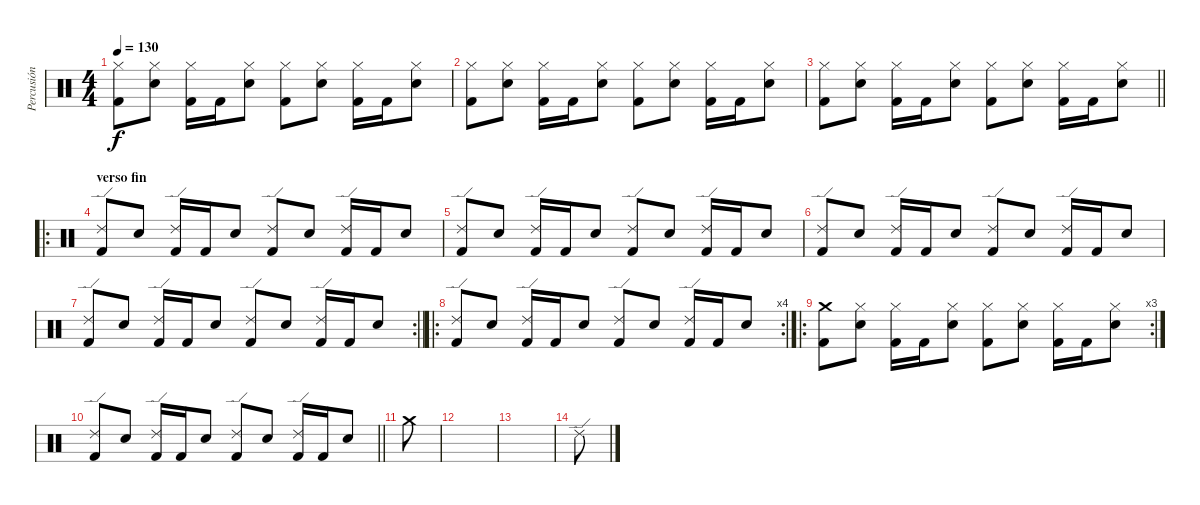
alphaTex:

\track ("Percusión" "Percusión") {instrument percussion}
\staff {score}
\articulation defaults
\ts (4 4)
\tempo 130
\clef neutral
\ks c
("Hi-Hat (closed)" "Kick (hit) 2").8{dy f} ("Hi-Hat (closed)" "Electric Snare (hit)").8 ("Hi-Hat (closed)" "Kick (hit) 2").16 "Kick (hit) 2".16 ("Hi-Hat (closed)" "Electric Snare (hit)").8 ("Hi-Hat (closed)" "Kick (hit) 2").8 ("Hi-Hat (closed)" "Electric Snare (hit)").8 ("Hi-Hat (closed)" "Kick (hit) 2").16 "Kick (hit) 2".16 ("Hi-Hat (closed)" "Electric Snare (hit)").8 |
("Hi-Hat (closed)" "Kick (hit) 2").8 ("Hi-Hat (closed)" "Electric Snare (hit)").8 ("Hi-Hat (closed)" "Kick (hit) 2").16 "Kick (hit) 2".16 ("Hi-Hat (closed)" "Electric Snare (hit)").8 ("Hi-Hat (closed)" "Kick (hit) 2").8 ("Hi-Hat (closed)" "Electric Snare (hit)").8 ("Hi-Hat (closed)" "Kick (hit) 2").16 "Kick (hit) 2".16 ("Hi-Hat (closed)" "Electric Snare (hit)").8 |
\barLineRight lightlight
("Hi-Hat (closed)" "Kick (hit) 2").8 ("Hi-Hat (closed)" "Electric Snare (hit)").8 ("Hi-Hat (closed)" "Kick (hit) 2").16 "Kick (hit) 2".16 ("Hi-Hat (closed)" "Electric Snare (hit)").8 ("Hi-Hat (closed)" "Kick (hit) 2").8 ("Hi-Hat (closed)" "Electric Snare (hit)").8 ("Hi-Hat (closed)" "Kick (hit) 2").16 "Kick (hit) 2".16 ("Hi-Hat (closed)" "Electric Snare (hit)").8 |
\ro
\section ("" "verso fin")
("Ride (edge) 2" "Kick (hit) 2").8 "Electric Snare (hit)".8 ("Ride (edge) 2" "Kick (hit) 2").16 "Kick (hit) 2".16 "Electric Snare (hit)".8 ("Ride (edge) 2" "Kick (hit) 2").8 "Electric Snare (hit)".8 ("Ride (edge) 2" "Kick (hit) 2").16 "Kick (hit) 2".16 "Electric Snare (hit)".8 |
("Ride (edge) 2" "Kick (hit) 2").8 "Electric Snare (hit)".8 ("Ride (edge) 2" "Kick (hit) 2").16 "Kick (hit) 2".16 "Electric Snare (hit)".8 ("Ride (edge) 2" "Kick (hit) 2").8 "Electric Snare (hit)".8 ("Ride (edge) 2" "Kick (hit) 2").16 "Kick (hit) 2".16 "Electric Snare (hit)".8 |
("Ride (edge) 2" "Kick (hit) 2").8 "Electric Snare (hit)".8 ("Ride (edge) 2" "Kick (hit) 2").16 "Kick (hit) 2".16 "Electric Snare (hit)".8 ("Ride (edge) 2" "Kick (hit) 2").8 "Electric Snare (hit)".8 ("Ride (edge) 2" "Kick (hit) 2").16 "Kick (hit) 2".16 "Electric Snare (hit)".8 |
\rc 2
\barLineRight lightlight
("Ride (edge) 2" "Kick (hit) 2").8 "Electric Snare (hit)".8 ("Ride (edge) 2" "Kick (hit) 2").16 "Kick (hit) 2".16 "Electric Snare (hit)".8 ("Ride (edge) 2" "Kick (hit) 2").8 "Electric Snare (hit)".8 ("Ride (edge) 2" "Kick (hit) 2").16 "Kick (hit) 2".16 "Electric Snare (hit)".8 |
\ro
\rc 4
("Ride (edge) 2" "Kick (hit) 2").8 "Electric Snare (hit)".8 ("Ride (edge) 2" "Kick (hit) 2").16 "Kick (hit) 2".16 "Electric Snare (hit)".8 ("Ride (edge) 2" "Kick (hit) 2").8 "Electric Snare (hit)".8 ("Ride (edge) 2" "Kick (hit) 2").16 "Kick (hit) 2".16 "Electric Snare (hit)".8 |
\ro
\rc 3
("Crash medium (hit)" "Kick (hit) 2").8 ("Hi-Hat (closed)" "Electric Snare (hit)").8 ("Hi-Hat (closed)" "Kick (hit) 2").16 "Kick (hit) 2".16 ("Hi-Hat (closed)" "Electric Snare (hit)").8 ("Hi-Hat (closed)" "Kick (hit) 2").8 ("Hi-Hat (closed)" "Electric Snare (hit)").8 ("Hi-Hat (closed)" "Kick (hit) 2").16 "Kick (hit) 2".16 ("Hi-Hat (closed)" "Electric Snare (hit)").8 |
\barLineRight lightlight
("Ride (edge) 2" "Kick (hit) 2").8 "Electric Snare (hit)".8 ("Ride (edge) 2" "Kick (hit) 2").16 "Kick (hit) 2".16 "Electric Snare (hit)".8 ("Ride (edge) 2" "Kick (hit) 2").8 "Electric Snare (hit)".8 ("Ride (edge) 2" "Kick (hit) 2").16 "Kick (hit) 2".16 "Electric Snare (hit)".8 |
"Crash medium (hit)".8 |
|
|
"Ride (edge) 2".8
